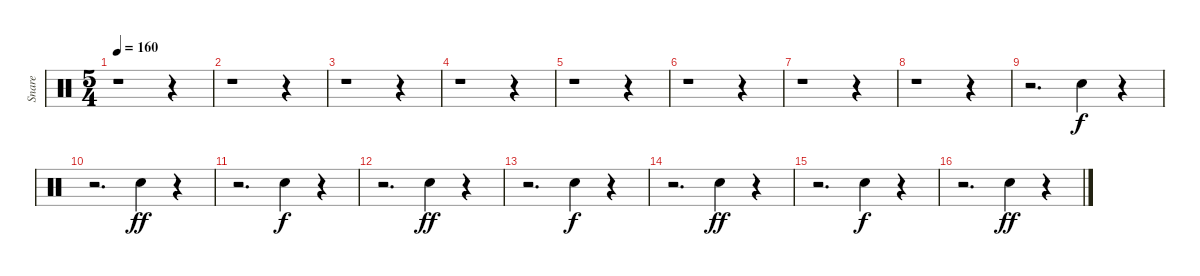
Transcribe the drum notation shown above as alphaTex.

\track ("Snare" "Snare") {instrument percussion}
\staff {score}
\articulation defaults
\ts (5 4)
\tempo 160
\clef neutral
\ks c
r.1{dy ff} r.4 |
r.1 r.4 |
r.1 r.4 |
r.1 r.4 |
r.1 r.4 |
r.1 r.4 |
r.1 r.4 |
r.1 r.4 |
r.2{d} "Electric Snare (hit)".4{dy f} r.4 |
r.2{d} "Electric Snare (hit)".4{dy ff} r.4 |
r.2{d} "Electric Snare (hit)".4{dy f} r.4 |
r.2{d} "Snare (hit) 2".4{dy ff} r.4 |
r.2{d} "Snare (hit) 2".4{dy f} r.4 |
r.2{d} "Snare (hit) 2".4{dy ff} r.4 |
r.2{d} "Snare (hit) 2".4{dy f} r.4 |
r.2{d} "Snare (hit) 2".4{dy ff} r.4
